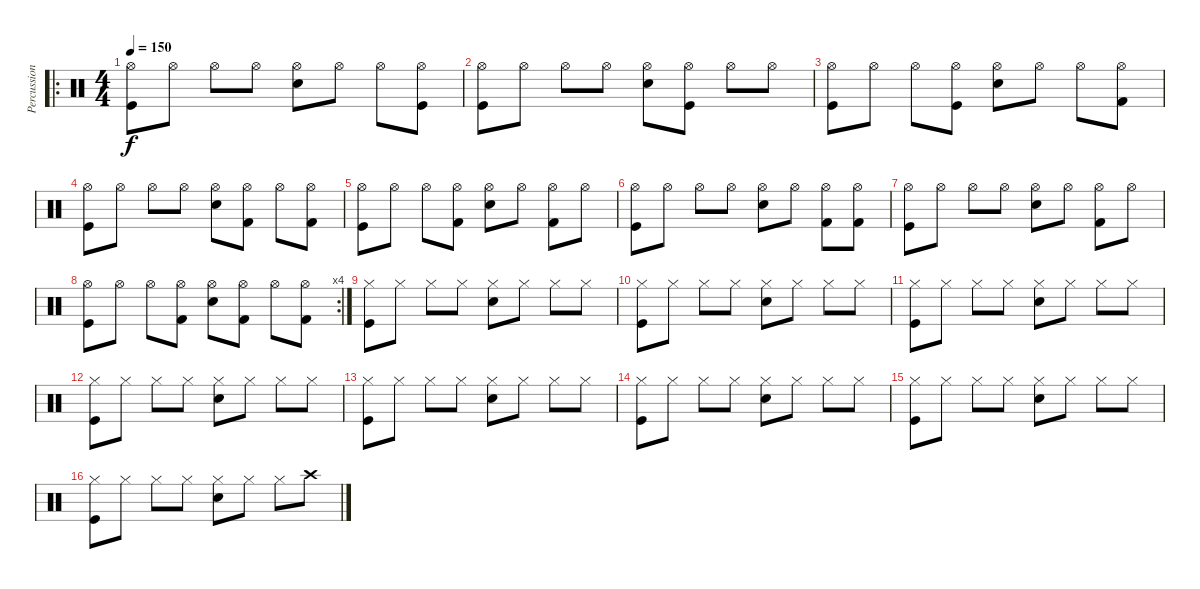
\track ("Percussion" "Percussion") {instrument percussion}
\staff {score}
\articulation defaults
\ro
\ts (4 4)
\tempo 150
\clef neutral
\ks c
("Hi-Hat (open)" "Kick (hit)").8{dy f} "Hi-Hat (open)".8 "Hi-Hat (open)".8 "Hi-Hat (open)".8 ("Hi-Hat (open)" "Electric Snare (hit)").8 "Hi-Hat (open)".8 "Hi-Hat (open)".8 ("Hi-Hat (open)" "Kick (hit)").8 |
("Hi-Hat (open)" "Kick (hit)").8 "Hi-Hat (open)".8 "Hi-Hat (open)".8 "Hi-Hat (open)".8 ("Hi-Hat (open)" "Electric Snare (hit)").8 ("Hi-Hat (open)" "Kick (hit)").8 "Hi-Hat (open)".8 "Hi-Hat (open)".8 |
("Hi-Hat (open)" "Kick (hit)").8 "Hi-Hat (open)".8 "Hi-Hat (open)".8 ("Hi-Hat (open)" "Kick (hit)").8 ("Hi-Hat (open)" "Electric Snare (hit)").8 "Hi-Hat (open)".8 "Hi-Hat (open)".8 ("Hi-Hat (open)" "Kick (hit) 2").8 |
("Hi-Hat (open)" "Kick (hit)").8 "Hi-Hat (open)".8 "Hi-Hat (open)".8 "Hi-Hat (open)".8 ("Hi-Hat (open)" "Electric Snare (hit)").8 ("Hi-Hat (open)" "Kick (hit) 2").8 "Hi-Hat (open)".8 ("Hi-Hat (open)" "Kick (hit) 2").8 |
("Hi-Hat (open)" "Kick (hit)").8 "Hi-Hat (open)".8 "Hi-Hat (open)".8 ("Hi-Hat (open)" "Kick (hit) 2").8 ("Hi-Hat (open)" "Electric Snare (hit)").8 "Hi-Hat (open)".8 ("Hi-Hat (open)" "Kick (hit) 2").8 "Hi-Hat (open)".8 |
("Hi-Hat (open)" "Kick (hit)").8 "Hi-Hat (open)".8 "Hi-Hat (open)".8 "Hi-Hat (open)".8 ("Hi-Hat (open)" "Electric Snare (hit)").8 "Hi-Hat (open)".8 ("Hi-Hat (open)" "Kick (hit) 2").8 ("Hi-Hat (open)" "Kick (hit) 2").8 |
("Hi-Hat (open)" "Kick (hit)").8 "Hi-Hat (open)".8 "Hi-Hat (open)".8 "Hi-Hat (open)".8 ("Hi-Hat (open)" "Electric Snare (hit)").8 "Hi-Hat (open)".8 ("Hi-Hat (open)" "Kick (hit) 2").8 "Hi-Hat (open)".8 |
\rc 4
("Hi-Hat (open)" "Kick (hit)").8 "Hi-Hat (open)".8 "Hi-Hat (open)".8 ("Hi-Hat (open)" "Kick (hit) 2").8 ("Hi-Hat (open)" "Electric Snare (hit)").8 ("Hi-Hat (open)" "Kick (hit) 2").8 "Hi-Hat (open)".8 ("Hi-Hat (open)" "Kick (hit) 2").8 |
("Hi-Hat (closed)" "Kick (hit)").8 "Hi-Hat (closed)".8 "Hi-Hat (closed)".8 "Hi-Hat (closed)".8 ("Hi-Hat (closed)" "Electric Snare (hit)").8 "Hi-Hat (closed)".8 "Hi-Hat (closed)".8 "Hi-Hat (closed)".8 |
("Hi-Hat (closed)" "Kick (hit)").8 "Hi-Hat (closed)".8 "Hi-Hat (closed)".8 "Hi-Hat (closed)".8 ("Hi-Hat (closed)" "Electric Snare (hit)").8 "Hi-Hat (closed)".8 "Hi-Hat (closed)".8 "Hi-Hat (closed)".8 |
("Hi-Hat (closed)" "Kick (hit)").8 "Hi-Hat (closed)".8 "Hi-Hat (closed)".8 "Hi-Hat (closed)".8 ("Hi-Hat (closed)" "Electric Snare (hit)").8 "Hi-Hat (closed)".8 "Hi-Hat (closed)".8 "Hi-Hat (closed)".8 |
("Hi-Hat (closed)" "Kick (hit)").8 "Hi-Hat (closed)".8 "Hi-Hat (closed)".8 "Hi-Hat (closed)".8 ("Hi-Hat (closed)" "Electric Snare (hit)").8 "Hi-Hat (closed)".8 "Hi-Hat (closed)".8 "Hi-Hat (closed)".8 |
("Hi-Hat (closed)" "Kick (hit)").8 "Hi-Hat (closed)".8 "Hi-Hat (closed)".8 "Hi-Hat (closed)".8 ("Hi-Hat (closed)" "Electric Snare (hit)").8 "Hi-Hat (closed)".8 "Hi-Hat (closed)".8 "Hi-Hat (closed)".8 |
("Hi-Hat (closed)" "Kick (hit)").8 "Hi-Hat (closed)".8 "Hi-Hat (closed)".8 "Hi-Hat (closed)".8 ("Hi-Hat (closed)" "Electric Snare (hit)").8 "Hi-Hat (closed)".8 "Hi-Hat (closed)".8 "Hi-Hat (closed)".8 |
("Hi-Hat (closed)" "Kick (hit)").8 "Hi-Hat (closed)".8 "Hi-Hat (closed)".8 "Hi-Hat (closed)".8 ("Hi-Hat (closed)" "Electric Snare (hit)").8 "Hi-Hat (closed)".8 "Hi-Hat (closed)".8 "Hi-Hat (closed)".8 |
("Hi-Hat (closed)" "Kick (hit)").8 "Hi-Hat (closed)".8 "Hi-Hat (closed)".8 "Hi-Hat (closed)".8 ("Hi-Hat (closed)" "Electric Snare (hit)").8 "Hi-Hat (closed)".8 "Hi-Hat (closed)".8 "Crash high (hit)".8
